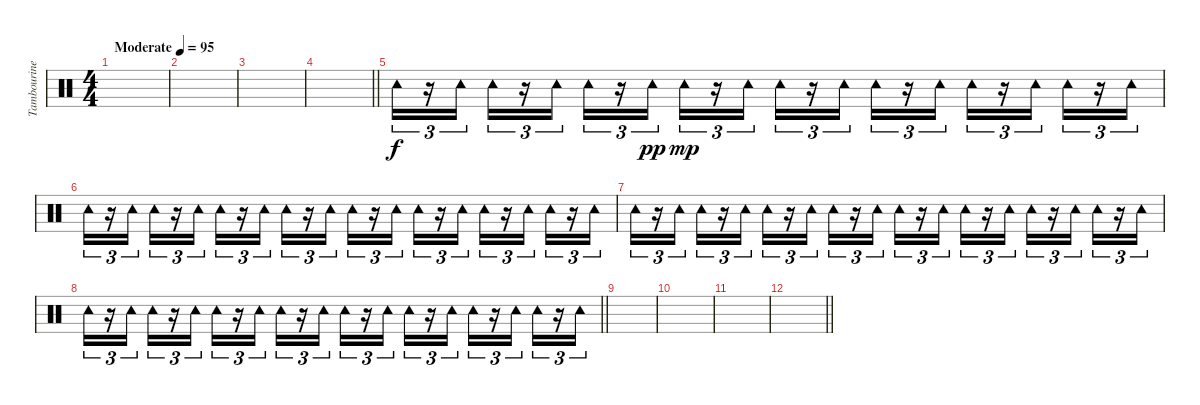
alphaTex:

\track ("Tambourine" "Tambourine") {instrument percussion}
\staff {score}
\articulation defaults
\ts (4 4)
\tempo (95 "Moderate")
\clef neutral
\ks c
|
|
|
\barLineRight lightlight
|
"Tambourine (hit)".16{tu (3 2) volume 1} r.16{tu (3 2)} "Tambourine (hit)".16{tu (3 2)} "Tambourine (hit)".16{tu (3 2)} r.16{tu (3 2)} "Tambourine (hit)".16{tu (3 2)} "Tambourine (hit)".16{tu (3 2)} r.16{tu (3 2)} "Tambourine (hit)".16{tu (3 2) dy pp} "Tambourine (hit)".16{tu (3 2) dy mp} r.16{tu (3 2)} "Tambourine (hit)".16{tu (3 2)} "Tambourine (hit)".16{tu (3 2)} r.16{tu (3 2)} "Tambourine (hit)".16{tu (3 2)} "Tambourine (hit)".16{tu (3 2)} r.16{tu (3 2)} "Tambourine (hit)".16{tu (3 2)} "Tambourine (hit)".16{tu (3 2)} r.16{tu (3 2)} "Tambourine (hit)".16{tu (3 2)} "Tambourine (hit)".16{tu (3 2)} r.16{tu (3 2)} "Tambourine (hit)".16{tu (3 2)} |
"Tambourine (hit)".16{tu (3 2)} r.16{tu (3 2)} "Tambourine (hit)".16{tu (3 2)} "Tambourine (hit)".16{tu (3 2)} r.16{tu (3 2)} "Tambourine (hit)".16{tu (3 2)} "Tambourine (hit)".16{tu (3 2)} r.16{tu (3 2)} "Tambourine (hit)".16{tu (3 2)} "Tambourine (hit)".16{tu (3 2)} r.16{tu (3 2)} "Tambourine (hit)".16{tu (3 2)} "Tambourine (hit)".16{tu (3 2)} r.16{tu (3 2)} "Tambourine (hit)".16{tu (3 2)} "Tambourine (hit)".16{tu (3 2)} r.16{tu (3 2)} "Tambourine (hit)".16{tu (3 2)} "Tambourine (hit)".16{tu (3 2)} r.16{tu (3 2)} "Tambourine (hit)".16{tu (3 2)} "Tambourine (hit)".16{tu (3 2)} r.16{tu (3 2)} "Tambourine (hit)".16{tu (3 2)} |
"Tambourine (hit)".16{tu (3 2)} r.16{tu (3 2)} "Tambourine (hit)".16{tu (3 2)} "Tambourine (hit)".16{tu (3 2)} r.16{tu (3 2)} "Tambourine (hit)".16{tu (3 2)} "Tambourine (hit)".16{tu (3 2)} r.16{tu (3 2)} "Tambourine (hit)".16{tu (3 2)} "Tambourine (hit)".16{tu (3 2)} r.16{tu (3 2)} "Tambourine (hit)".16{tu (3 2)} "Tambourine (hit)".16{tu (3 2)} r.16{tu (3 2)} "Tambourine (hit)".16{tu (3 2)} "Tambourine (hit)".16{tu (3 2)} r.16{tu (3 2)} "Tambourine (hit)".16{tu (3 2)} "Tambourine (hit)".16{tu (3 2)} r.16{tu (3 2)} "Tambourine (hit)".16{tu (3 2)} "Tambourine (hit)".16{tu (3 2)} r.16{tu (3 2)} "Tambourine (hit)".16{tu (3 2)} |
\barLineRight lightlight "Tambourine (hit)".16{tu (3 2)}
r.16{tu (3 2)} "Tambourine (hit)".16{tu (3 2)} "Tambourine (hit)".16{tu (3 2)} r.16{tu (3 2)} "Tambourine (hit)".16{tu (3 2)} "Tambourine (hit)".16{tu (3 2)} r.16{tu (3 2)} "Tambourine (hit)".16{tu (3 2)} "Tambourine (hit)".16{tu (3 2)} r.16{tu (3 2)} "Tambourine (hit)".16{tu (3 2)} "Tambourine (hit)".16{tu (3 2)} r.16{tu (3 2)} "Tambourine (hit)".16{tu (3 2)} "Tambourine (hit)".16{tu (3 2)} r.16{tu (3 2)} "Tambourine (hit)".16{tu (3 2)} "Tambourine (hit)".16{tu (3 2)} r.16{tu (3 2)} "Tambourine (hit)".16{tu (3 2)} "Tambourine (hit)".16{tu (3 2)} r.16{tu (3 2)} "Tambourine (hit)".16{tu (3 2)} |
|
|
|
\barLineRight lightlight
